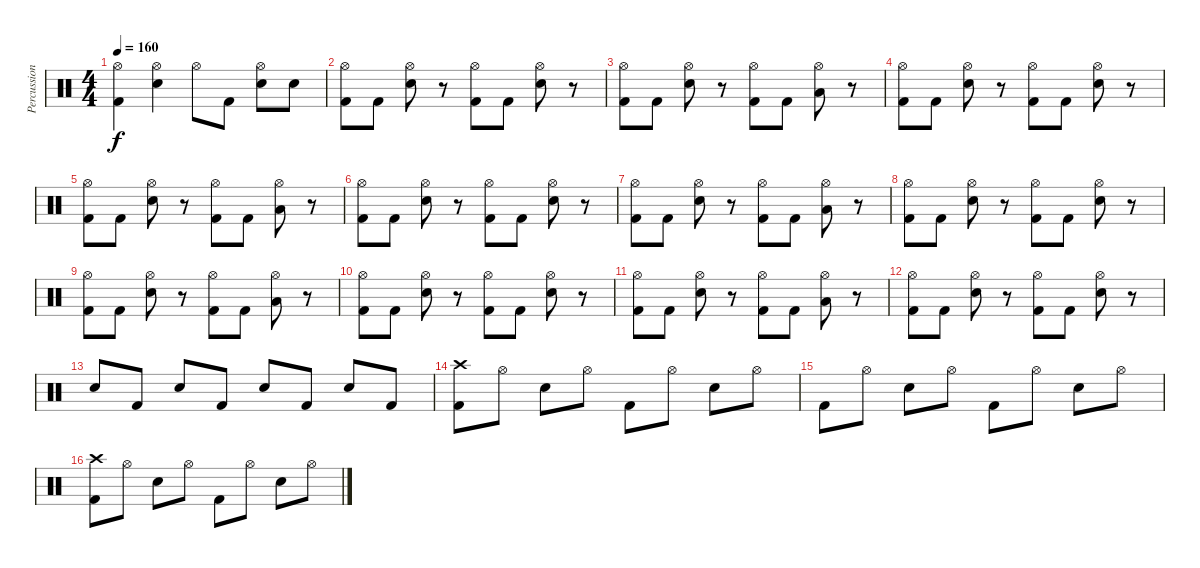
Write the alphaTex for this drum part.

\track ("Percussion" "Percussion") {instrument percussion}
\staff {score}
\articulation defaults
\ts (4 4)
\tempo 160
\clef neutral
\ks c
("Kick (hit) 2" "Hi-Hat (open)").4{dy f} ("Electric Snare (hit)" "Hi-Hat (open)").4 "Hi-Hat (open)".8 "Kick (hit) 2".8 ("Electric Snare (hit)" "Hi-Hat (open)").8 "Electric Snare (hit)".8 |
("Kick (hit) 2" "Hi-Hat (open)").8 "Kick (hit) 2".8 ("Electric Snare (hit)" "Hi-Hat (open)").8 r.8 ("Kick (hit) 2" "Hi-Hat (open)").8 "Kick (hit) 2".8 ("Electric Snare (hit)" "Hi-Hat (open)").8 r.8 |
("Kick (hit) 2" "Hi-Hat (open)").8 "Kick (hit) 2".8 ("Electric Snare (hit)" "Hi-Hat (open)").8 r.8 ("Kick (hit) 2" "Hi-Hat (open)").8 "Kick (hit) 2".8 ("Low Tom (hit)" "Hi-Hat (open)").8 r.8 |
("Kick (hit) 2" "Hi-Hat (open)").8 "Kick (hit) 2".8 ("Electric Snare (hit)" "Hi-Hat (open)").8 r.8 ("Kick (hit) 2" "Hi-Hat (open)").8 "Kick (hit) 2".8 ("Electric Snare (hit)" "Hi-Hat (open)").8 r.8 |
("Kick (hit) 2" "Hi-Hat (open)").8 "Kick (hit) 2".8 ("Electric Snare (hit)" "Hi-Hat (open)").8 r.8 ("Kick (hit) 2" "Hi-Hat (open)").8 "Kick (hit) 2".8 ("Low Tom (hit)" "Hi-Hat (open)").8 r.8 |
("Kick (hit) 2" "Hi-Hat (open)").8 "Kick (hit) 2".8 ("Electric Snare (hit)" "Hi-Hat (open)").8 r.8 ("Kick (hit) 2" "Hi-Hat (open)").8 "Kick (hit) 2".8 ("Electric Snare (hit)" "Hi-Hat (open)").8 r.8 |
("Kick (hit) 2" "Hi-Hat (open)").8 "Kick (hit) 2".8 ("Electric Snare (hit)" "Hi-Hat (open)").8 r.8 ("Kick (hit) 2" "Hi-Hat (open)").8 "Kick (hit) 2".8 ("Low Tom (hit)" "Hi-Hat (open)").8 r.8 |
("Kick (hit) 2" "Hi-Hat (open)").8 "Kick (hit) 2".8 ("Electric Snare (hit)" "Hi-Hat (open)").8 r.8 ("Kick (hit) 2" "Hi-Hat (open)").8 "Kick (hit) 2".8 ("Electric Snare (hit)" "Hi-Hat (open)").8 r.8 |
("Kick (hit) 2" "Hi-Hat (open)").8 "Kick (hit) 2".8 ("Electric Snare (hit)" "Hi-Hat (open)").8 r.8 ("Kick (hit) 2" "Hi-Hat (open)").8 "Kick (hit) 2".8 ("Low Tom (hit)" "Hi-Hat (open)").8 r.8 |
("Kick (hit) 2" "Hi-Hat (open)").8 "Kick (hit) 2".8 ("Electric Snare (hit)" "Hi-Hat (open)").8 r.8 ("Kick (hit) 2" "Hi-Hat (open)").8 "Kick (hit) 2".8 ("Electric Snare (hit)" "Hi-Hat (open)").8 r.8 |
("Kick (hit) 2" "Hi-Hat (open)").8 "Kick (hit) 2".8 ("Electric Snare (hit)" "Hi-Hat (open)").8 r.8 ("Kick (hit) 2" "Hi-Hat (open)").8 "Kick (hit) 2".8 ("Low Tom (hit)" "Hi-Hat (open)").8 r.8 |
("Kick (hit) 2" "Hi-Hat (open)").8 "Kick (hit) 2".8 ("Electric Snare (hit)" "Hi-Hat (open)").8 r.8 ("Kick (hit) 2" "Hi-Hat (open)").8 "Kick (hit) 2".8 ("Electric Snare (hit)" "Hi-Hat (open)").8 r.8 |
"Electric Snare (hit)".8 "Kick (hit) 2".8 "Electric Snare (hit)".8 "Kick (hit) 2".8 "Electric Snare (hit)".8 "Kick (hit) 2".8 "Electric Snare (hit)".8 "Kick (hit) 2".8 |
("Kick (hit) 2" "Crash high (hit)").8 "Hi-Hat (open)".8 "Electric Snare (hit)".8 "Hi-Hat (open)".8 "Kick (hit) 2".8 "Hi-Hat (open)".8 "Electric Snare (hit)".8 "Hi-Hat (open)".8 |
"Kick (hit) 2".8 "Hi-Hat (open)".8 "Electric Snare (hit)".8 "Hi-Hat (open)".8 "Kick (hit) 2".8 "Hi-Hat (open)".8 "Electric Snare (hit)".8 "Hi-Hat (open)".8 |
("Kick (hit) 2" "Crash high (hit)").8 "Hi-Hat (open)".8 "Electric Snare (hit)".8 "Hi-Hat (open)".8 "Kick (hit) 2".8 "Hi-Hat (open)".8 "Electric Snare (hit)".8 "Hi-Hat (open)".8
